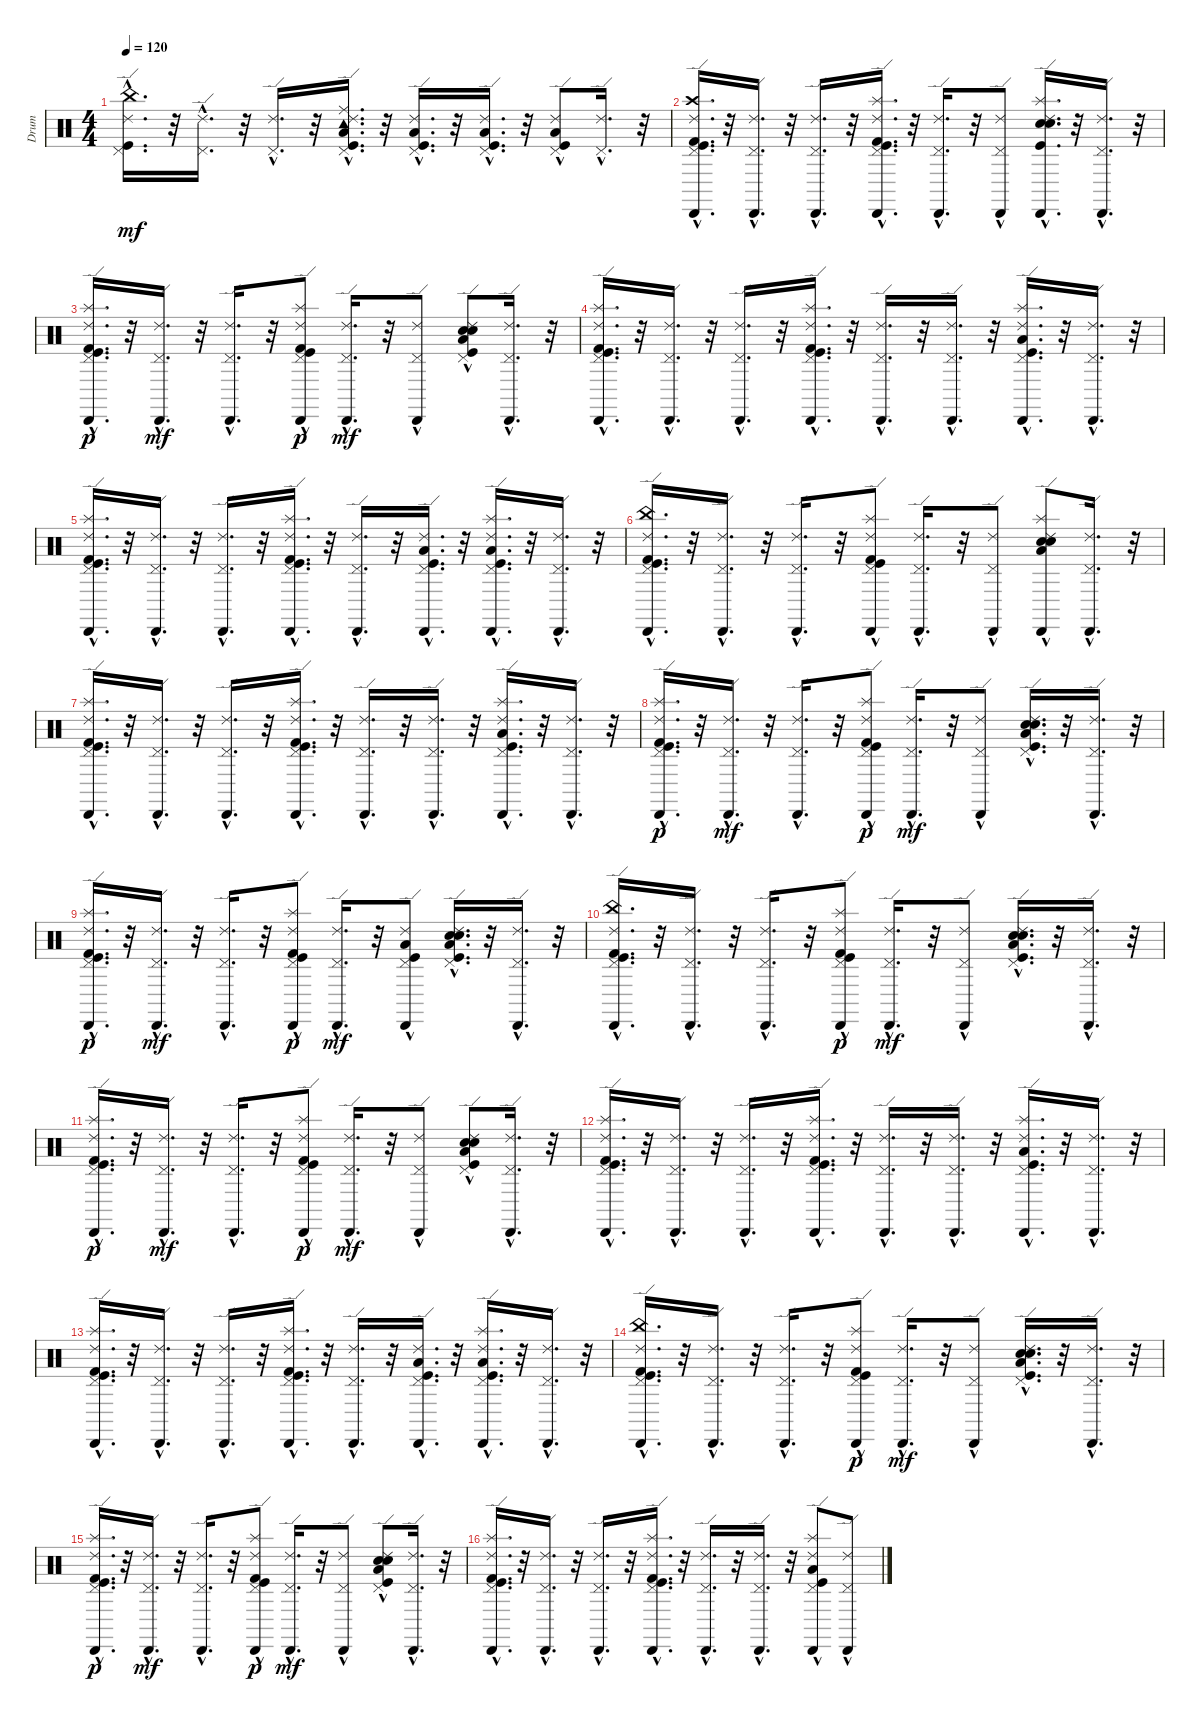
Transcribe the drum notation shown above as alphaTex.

\track ("Drum" "Drum") {instrument percussion}
\staff {score}
\articulation defaults
\ts (4 4)
\tempo 120
\clef neutral
\ks c
("China (hit)"{hac} "Pedal Hi-Hat (hit)"{hac} "Kick (hit)"{hac} "Ride (edge) 2"{hac}).16{d dy mf} r.32 ("Pedal Hi-Hat (hit)"{hac} "Ride (edge) 2"{hac}).16{d} r.32 ("Pedal Hi-Hat (hit)"{hac} "Ride (edge) 2"{hac}).16{d} r.32 ("Low Tom (hit)"{hac} "Pedal Hi-Hat (hit)"{hac} "Kick (hit)"{hac} "Ride (edge) 2"{hac} "Ride (middle)"{hac} "Tambourine (hit)"{hac}).16{d} r.32 ("Kick (hit)"{hac} "Low Tom (hit)"{hac} "Pedal Hi-Hat (hit)"{hac} "Ride (edge) 2"{hac}).16{d} r.32 ("Low Tom (hit)"{hac} "Kick (hit)"{hac} "Pedal Hi-Hat (hit)"{hac} "Ride (edge) 2"{hac}).16{d} r.32 ("Pedal Hi-Hat (hit)"{hac} "Kick (hit)"{hac} "Low Tom (hit)" "Ride (edge) 2"{hac}).8 ("Pedal Hi-Hat (hit)"{hac} "Ride (edge) 2"{hac}).16{d} r.32 |
("Crash high (hit)"{hac} "Cabasa (hit)"{hac} "Kick (hit)"{hac} "Pedal Hi-Hat (hit)"{hac} "Ride (edge) 2"{hac} "Kick (hit) 2"{hac}).16{d} r.32 ("Pedal Hi-Hat (hit)"{hac} "Cabasa (hit)"{hac} "Ride (edge) 2"{hac}).16{d} r.32 ("Ride (edge) 2"{hac} "Cabasa (hit)"{hac} "Pedal Hi-Hat (hit)"{hac}).16{d} r.32 ("Cabasa (hit)"{hac} "Kick (hit) 2"{hac} "Splash (hit)"{hac} "Ride (edge) 2"{hac} "Kick (hit)"{hac} "Pedal Hi-Hat (hit)"{hac}).16{d} r.32 ("Cabasa (hit)"{hac} "Pedal Hi-Hat (hit)"{hac} "Ride (edge) 2"{hac}).16{d} r.32 ("Cabasa (hit)"{hac} "Pedal Hi-Hat (hit)"{hac} "Ride (edge) 2"{hac}).8 ("Ride (edge) 2"{hac} "Splash (hit)"{hac} "Electric Snare (hit)"{hac} "Cabasa (hit)"{hac} "Snare (hit) 2"{hac} "Kick (hit)"{hac}).16{d} r.32 ("Ride (edge) 2"{hac} "Cabasa (hit)"{hac} "Pedal Hi-Hat (hit)"{hac}).16{d} r.32 |
("Ride (edge) 2"{hac} "Kick (hit)"{hac} "Pedal Hi-Hat (hit)"{hac} "Cabasa (hit)"{hac} "Kick (hit) 2"{hac} "Splash (hit)"{hac}).16{d dy p} r.32 ("Ride (edge) 2"{hac} "Pedal Hi-Hat (hit)"{hac} "Cabasa (hit)"{hac}).16{d dy mf} r.32 ("Ride (edge) 2"{hac} "Pedal Hi-Hat (hit)"{hac} "Cabasa (hit)"{hac}).16{d} r.32 ("Ride (edge) 2"{hac} "Kick (hit)"{hac} "Pedal Hi-Hat (hit)"{hac} "Cabasa (hit)"{hac} "Kick (hit) 2"{hac} "Splash (hit)"{hac}).8{dy p} ("Ride (edge) 2"{hac} "Pedal Hi-Hat (hit)"{hac} "Cabasa (hit)"{hac}).16{d dy mf} r.32 ("Ride (edge) 2"{hac} "Pedal Hi-Hat (hit)"{hac} "Cabasa (hit)"{hac}).8 ("Electric Snare (hit)" "Snare (hit) 2" "Ride (edge) 2"{hac} "Low Tom (hit)"{hac} "Kick (hit)"{hac} "Pedal Hi-Hat (hit)"{hac}).8 ("Ride (edge) 2"{hac} "Pedal Hi-Hat (hit)"{hac} "Cabasa (hit)"{hac}).16{d} r.32 |
("Splash (hit)"{hac} "Kick (hit) 2"{hac} "Cabasa (hit)"{hac} "Pedal Hi-Hat (hit)"{hac} "Kick (hit)"{hac} "Ride (edge) 2"{hac}).16{d} r.32 ("Cabasa (hit)"{hac} "Pedal Hi-Hat (hit)"{hac} "Ride (edge) 2"{hac}).16{d} r.32 ("Cabasa (hit)"{hac} "Pedal Hi-Hat (hit)"{hac} "Ride (edge) 2"{hac}).16{d} r.32 ("Splash (hit)"{hac} "Kick (hit) 2"{hac} "Cabasa (hit)"{hac} "Pedal Hi-Hat (hit)"{hac} "Kick (hit)"{hac} "Ride (edge) 2"{hac}).16{d} r.32 ("Cabasa (hit)"{hac} "Pedal Hi-Hat (hit)"{hac} "Ride (edge) 2"{hac}).16{d} r.32 ("Cabasa (hit)"{hac} "Pedal Hi-Hat (hit)"{hac} "Ride (edge) 2"{hac}).16{d} r.32 ("Splash (hit)"{hac} "Cabasa (hit)"{hac} "Pedal Hi-Hat (hit)"{hac} "Kick (hit)"{hac} "Low Tom (hit)"{hac} "Ride (edge) 2"{hac}).16{d} r.32 ("Cabasa (hit)"{hac} "Pedal Hi-Hat (hit)"{hac} "Ride (edge) 2"{hac}).16{d} r.32 |
("Splash (hit)"{hac} "Kick (hit) 2"{hac} "Cabasa (hit)"{hac} "Pedal Hi-Hat (hit)"{hac} "Kick (hit)"{hac} "Ride (edge) 2"{hac}).16{d} r.32 ("Cabasa (hit)"{hac} "Pedal Hi-Hat (hit)"{hac} "Ride (edge) 2"{hac}).16{d} r.32 ("Cabasa (hit)"{hac} "Pedal Hi-Hat (hit)"{hac} "Ride (edge) 2"{hac}).16{d} r.32 ("Splash (hit)"{hac} "Kick (hit) 2"{hac} "Cabasa (hit)"{hac} "Pedal Hi-Hat (hit)"{hac} "Kick (hit)"{hac} "Ride (edge) 2"{hac}).16{d} r.32 ("Cabasa (hit)"{hac} "Pedal Hi-Hat (hit)"{hac} "Ride (edge) 2"{hac}).16{d} r.32 ("Cabasa (hit)"{hac} "Pedal Hi-Hat (hit)"{hac} "Ride (edge) 2"{hac} "Kick (hit)"{hac} "Low Tom (hit)"{hac}).16{d} r.32 ("Splash (hit)"{hac} "Cabasa (hit)"{hac} "Pedal Hi-Hat (hit)"{hac} "Kick (hit)"{hac} "Low Tom (hit)"{hac} "Ride (edge) 2"{hac}).16{d} r.32 ("Cabasa (hit)"{hac} "Pedal Hi-Hat (hit)"{hac} "Ride (edge) 2"{hac}).16{d} r.32 |
("Kick (hit) 2"{hac} "Cabasa (hit)"{hac} "Ride (edge) 2"{hac} "Kick (hit)"{hac} "Pedal Hi-Hat (hit)"{hac} "China (hit)"{hac}).16{d} r.32 ("Cabasa (hit)"{hac} "Ride (edge) 2"{hac} "Pedal Hi-Hat (hit)"{hac}).16{d} r.32 ("Cabasa (hit)"{hac} "Ride (edge) 2"{hac} "Pedal Hi-Hat (hit)"{hac}).16{d} r.32 ("Splash (hit)"{hac} "Kick (hit) 2"{hac} "Cabasa (hit)"{hac} "Ride (edge) 2"{hac} "Kick (hit)"{hac} "Pedal Hi-Hat (hit)"{hac}).8 ("Cabasa (hit)"{hac} "Ride (edge) 2"{hac} "Pedal Hi-Hat (hit)"{hac}).16{d} r.32 ("Cabasa (hit)"{hac} "Ride (edge) 2"{hac} "Pedal Hi-Hat (hit)"{hac}).8 ("Splash (hit)"{hac} "Cabasa (hit)"{hac} "Electric Snare (hit)" "Snare (hit) 2" "Ride (edge) 2"{hac} "Low Tom (hit)"{hac}).8 ("Cabasa (hit)"{hac} "Ride (edge) 2"{hac} "Pedal Hi-Hat (hit)"{hac}).16{d} r.32 |
("Splash (hit)"{hac} "Kick (hit) 2"{hac} "Cabasa (hit)"{hac} "Pedal Hi-Hat (hit)"{hac} "Kick (hit)"{hac} "Ride (edge) 2"{hac}).16{d} r.32 ("Cabasa (hit)"{hac} "Pedal Hi-Hat (hit)"{hac} "Ride (edge) 2"{hac}).16{d} r.32 ("Cabasa (hit)"{hac} "Pedal Hi-Hat (hit)"{hac} "Ride (edge) 2"{hac}).16{d} r.32 ("Splash (hit)"{hac} "Kick (hit) 2"{hac} "Cabasa (hit)"{hac} "Pedal Hi-Hat (hit)"{hac} "Kick (hit)"{hac} "Ride (edge) 2"{hac}).16{d} r.32 ("Cabasa (hit)"{hac} "Pedal Hi-Hat (hit)"{hac} "Ride (edge) 2"{hac}).16{d} r.32 ("Cabasa (hit)"{hac} "Pedal Hi-Hat (hit)"{hac} "Ride (edge) 2"{hac}).16{d} r.32 ("Splash (hit)"{hac} "Cabasa (hit)"{hac} "Pedal Hi-Hat (hit)"{hac} "Kick (hit)"{hac} "Low Tom (hit)"{hac} "Ride (edge) 2"{hac}).16{d} r.32 ("Cabasa (hit)"{hac} "Pedal Hi-Hat (hit)"{hac} "Ride (edge) 2"{hac}).16{d} r.32 |
("Ride (edge) 2"{hac} "Kick (hit)"{hac} "Pedal Hi-Hat (hit)"{hac} "Cabasa (hit)"{hac} "Kick (hit) 2"{hac} "Splash (hit)"{hac}).16{d dy p} r.32 ("Ride (edge) 2"{hac} "Pedal Hi-Hat (hit)"{hac} "Cabasa (hit)"{hac}).16{d dy mf} r.32 ("Ride (edge) 2"{hac} "Pedal Hi-Hat (hit)"{hac} "Cabasa (hit)"{hac}).16{d} r.32 ("Ride (edge) 2"{hac} "Kick (hit)"{hac} "Pedal Hi-Hat (hit)"{hac} "Cabasa (hit)"{hac} "Kick (hit) 2"{hac} "Splash (hit)"{hac}).8{dy p} ("Ride (edge) 2"{hac} "Pedal Hi-Hat (hit)"{hac} "Cabasa (hit)"{hac}).16{d dy mf} r.32 ("Ride (edge) 2"{hac} "Pedal Hi-Hat (hit)"{hac} "Cabasa (hit)"{hac}).8 ("Electric Snare (hit)"{hac} "Snare (hit) 2"{hac} "Ride (edge) 2"{hac} "Low Tom (hit)"{hac} "Kick (hit)"{hac} "Pedal Hi-Hat (hit)"{hac}).16{d} r.32 ("Ride (edge) 2"{hac} "Pedal Hi-Hat (hit)"{hac} "Cabasa (hit)"{hac}).16{d} r.32 |
("Ride (edge) 2"{hac} "Kick (hit)"{hac} "Pedal Hi-Hat (hit)"{hac} "Cabasa (hit)"{hac} "Kick (hit) 2"{hac} "Splash (hit)"{hac}).16{d dy p} r.32 ("Ride (edge) 2"{hac} "Pedal Hi-Hat (hit)"{hac} "Cabasa (hit)"{hac}).16{d dy mf} r.32 ("Ride (edge) 2"{hac} "Pedal Hi-Hat (hit)"{hac} "Cabasa (hit)"{hac}).16{d} r.32 ("Ride (edge) 2"{hac} "Kick (hit)"{hac} "Pedal Hi-Hat (hit)"{hac} "Cabasa (hit)"{hac} "Kick (hit) 2"{hac} "Splash (hit)"{hac}).8{dy p} ("Ride (edge) 2"{hac} "Pedal Hi-Hat (hit)"{hac} "Cabasa (hit)"{hac}).16{d dy mf} r.32 ("Low Tom (hit)"{hac} "Kick (hit)"{hac} "Ride (edge) 2"{hac} "Pedal Hi-Hat (hit)"{hac} "Cabasa (hit)"{hac}).8 ("Electric Snare (hit)"{hac} "Snare (hit) 2"{hac} "Ride (edge) 2"{hac} "Low Tom (hit)"{hac} "Kick (hit)"{hac} "Pedal Hi-Hat (hit)"{hac}).16{d} r.32 ("Ride (edge) 2"{hac} "Pedal Hi-Hat (hit)"{hac} "Cabasa (hit)"{hac}).16{d} r.32 |
("China (hit)"{hac} "Pedal Hi-Hat (hit)"{hac} "Kick (hit)"{hac} "Ride (edge) 2"{hac} "Cabasa (hit)"{hac} "Kick (hit) 2"{hac}).16{d} r.32 ("Pedal Hi-Hat (hit)"{hac} "Ride (edge) 2"{hac} "Cabasa (hit)"{hac}).16{d} r.32 ("Pedal Hi-Hat (hit)"{hac} "Ride (edge) 2"{hac} "Cabasa (hit)"{hac}).16{d} r.32 ("Pedal Hi-Hat (hit)"{hac} "Kick (hit)"{hac} "Ride (edge) 2"{hac} "Cabasa (hit)"{hac} "Kick (hit) 2"{hac} "Splash (hit)"{hac}).8{dy p} ("Pedal Hi-Hat (hit)"{hac} "Ride (edge) 2"{hac} "Cabasa (hit)"{hac}).16{d dy mf} r.32 ("Pedal Hi-Hat (hit)"{hac} "Ride (edge) 2"{hac} "Cabasa (hit)"{hac}).8 ("Pedal Hi-Hat (hit)"{hac} "Kick (hit)"{hac} "Low Tom (hit)"{hac} "Ride (edge) 2"{hac} "Snare (hit) 2"{hac} "Electric Snare (hit)"{hac}).16{d} r.32 ("Pedal Hi-Hat (hit)"{hac} "Ride (edge) 2"{hac} "Cabasa (hit)"{hac}).16{d} r.32 |
("Ride (edge) 2"{hac} "Kick (hit)"{hac} "Pedal Hi-Hat (hit)"{hac} "Cabasa (hit)"{hac} "Kick (hit) 2"{hac} "Splash (hit)"{hac}).16{d dy p} r.32 ("Ride (edge) 2"{hac} "Pedal Hi-Hat (hit)"{hac} "Cabasa (hit)"{hac}).16{d dy mf} r.32 ("Ride (edge) 2"{hac} "Pedal Hi-Hat (hit)"{hac} "Cabasa (hit)"{hac}).16{d} r.32 ("Ride (edge) 2"{hac} "Kick (hit)"{hac} "Pedal Hi-Hat (hit)"{hac} "Cabasa (hit)"{hac} "Kick (hit) 2"{hac} "Splash (hit)"{hac}).8{dy p} ("Ride (edge) 2"{hac} "Pedal Hi-Hat (hit)"{hac} "Cabasa (hit)"{hac}).16{d dy mf} r.32 ("Ride (edge) 2"{hac} "Pedal Hi-Hat (hit)"{hac} "Cabasa (hit)"{hac}).8 ("Electric Snare (hit)" "Snare (hit) 2" "Ride (edge) 2"{hac} "Low Tom (hit)"{hac} "Kick (hit)"{hac} "Pedal Hi-Hat (hit)"{hac}).8 ("Ride (edge) 2"{hac} "Pedal Hi-Hat (hit)"{hac} "Cabasa (hit)"{hac}).16{d} r.32 |
("Splash (hit)"{hac} "Kick (hit) 2"{hac} "Cabasa (hit)"{hac} "Pedal Hi-Hat (hit)"{hac} "Kick (hit)"{hac} "Ride (edge) 2"{hac}).16{d} r.32 ("Cabasa (hit)"{hac} "Pedal Hi-Hat (hit)"{hac} "Ride (edge) 2"{hac}).16{d} r.32 ("Cabasa (hit)"{hac} "Pedal Hi-Hat (hit)"{hac} "Ride (edge) 2"{hac}).16{d} r.32 ("Splash (hit)"{hac} "Kick (hit) 2"{hac} "Cabasa (hit)"{hac} "Pedal Hi-Hat (hit)"{hac} "Kick (hit)"{hac} "Ride (edge) 2"{hac}).16{d} r.32 ("Cabasa (hit)"{hac} "Pedal Hi-Hat (hit)"{hac} "Ride (edge) 2"{hac}).16{d} r.32 ("Cabasa (hit)"{hac} "Pedal Hi-Hat (hit)"{hac} "Ride (edge) 2"{hac}).16{d} r.32 ("Splash (hit)"{hac} "Cabasa (hit)"{hac} "Pedal Hi-Hat (hit)"{hac} "Kick (hit)"{hac} "Low Tom (hit)"{hac} "Ride (edge) 2"{hac}).16{d} r.32 ("Cabasa (hit)"{hac} "Pedal Hi-Hat (hit)"{hac} "Ride (edge) 2"{hac}).16{d} r.32 |
("Splash (hit)"{hac} "Kick (hit) 2"{hac} "Cabasa (hit)"{hac} "Pedal Hi-Hat (hit)"{hac} "Kick (hit)"{hac} "Ride (edge) 2"{hac}).16{d} r.32 ("Cabasa (hit)"{hac} "Pedal Hi-Hat (hit)"{hac} "Ride (edge) 2"{hac}).16{d} r.32 ("Cabasa (hit)"{hac} "Pedal Hi-Hat (hit)"{hac} "Ride (edge) 2"{hac}).16{d} r.32 ("Splash (hit)"{hac} "Kick (hit) 2"{hac} "Cabasa (hit)"{hac} "Pedal Hi-Hat (hit)"{hac} "Kick (hit)"{hac} "Ride (edge) 2"{hac}).16{d} r.32 ("Cabasa (hit)"{hac} "Pedal Hi-Hat (hit)"{hac} "Ride (edge) 2"{hac}).16{d} r.32 ("Cabasa (hit)"{hac} "Pedal Hi-Hat (hit)"{hac} "Ride (edge) 2"{hac} "Kick (hit)"{hac} "Low Tom (hit)"{hac}).16{d} r.32 ("Splash (hit)"{hac} "Cabasa (hit)"{hac} "Pedal Hi-Hat (hit)"{hac} "Kick (hit)"{hac} "Low Tom (hit)"{hac} "Ride (edge) 2"{hac}).16{d} r.32 ("Cabasa (hit)"{hac} "Pedal Hi-Hat (hit)"{hac} "Ride (edge) 2"{hac}).16{d} r.32 |
("China (hit)"{hac} "Pedal Hi-Hat (hit)"{hac} "Kick (hit)"{hac} "Ride (edge) 2"{hac} "Cabasa (hit)"{hac} "Kick (hit) 2"{hac}).16{d} r.32 ("Pedal Hi-Hat (hit)"{hac} "Ride (edge) 2"{hac} "Cabasa (hit)"{hac}).16{d} r.32 ("Pedal Hi-Hat (hit)"{hac} "Ride (edge) 2"{hac} "Cabasa (hit)"{hac}).16{d} r.32 ("Pedal Hi-Hat (hit)"{hac} "Kick (hit)"{hac} "Ride (edge) 2"{hac} "Cabasa (hit)"{hac} "Kick (hit) 2"{hac} "Splash (hit)"{hac}).8{dy p} ("Pedal Hi-Hat (hit)"{hac} "Ride (edge) 2"{hac} "Cabasa (hit)"{hac}).16{d dy mf} r.32 ("Pedal Hi-Hat (hit)"{hac} "Ride (edge) 2"{hac} "Cabasa (hit)"{hac}).8 ("Pedal Hi-Hat (hit)"{hac} "Kick (hit)"{hac} "Low Tom (hit)"{hac} "Ride (edge) 2"{hac} "Snare (hit) 2"{hac} "Electric Snare (hit)"{hac}).16{d} r.32 ("Pedal Hi-Hat (hit)"{hac} "Ride (edge) 2"{hac} "Cabasa (hit)"{hac}).16{d} r.32 |
("Ride (edge) 2"{hac} "Kick (hit)"{hac} "Pedal Hi-Hat (hit)"{hac} "Cabasa (hit)"{hac} "Kick (hit) 2"{hac} "Splash (hit)"{hac}).16{d dy p} r.32 ("Ride (edge) 2"{hac} "Pedal Hi-Hat (hit)"{hac} "Cabasa (hit)"{hac}).16{d dy mf} r.32 ("Ride (edge) 2"{hac} "Pedal Hi-Hat (hit)"{hac} "Cabasa (hit)"{hac}).16{d} r.32 ("Ride (edge) 2"{hac} "Kick (hit)"{hac} "Pedal Hi-Hat (hit)"{hac} "Cabasa (hit)"{hac} "Kick (hit) 2"{hac} "Splash (hit)"{hac}).8{dy p} ("Ride (edge) 2"{hac} "Pedal Hi-Hat (hit)"{hac} "Cabasa (hit)"{hac}).16{d dy mf} r.32 ("Ride (edge) 2"{hac} "Pedal Hi-Hat (hit)"{hac} "Cabasa (hit)"{hac}).8 ("Electric Snare (hit)" "Snare (hit) 2" "Ride (edge) 2"{hac} "Low Tom (hit)"{hac} "Kick (hit)"{hac} "Pedal Hi-Hat (hit)"{hac}).8 ("Ride (edge) 2"{hac} "Pedal Hi-Hat (hit)"{hac} "Cabasa (hit)"{hac}).16{d} r.32 |
("Splash (hit)"{hac} "Kick (hit) 2"{hac} "Cabasa (hit)"{hac} "Pedal Hi-Hat (hit)"{hac} "Kick (hit)"{hac} "Ride (edge) 2"{hac}).16{d} r.32 ("Cabasa (hit)"{hac} "Pedal Hi-Hat (hit)"{hac} "Ride (edge) 2"{hac}).16{d} r.32 ("Cabasa (hit)"{hac} "Pedal Hi-Hat (hit)"{hac} "Ride (edge) 2"{hac}).16{d} r.32 ("Splash (hit)"{hac} "Kick (hit) 2"{hac} "Cabasa (hit)"{hac} "Pedal Hi-Hat (hit)"{hac} "Kick (hit)"{hac} "Ride (edge) 2"{hac}).16{d} r.32 ("Cabasa (hit)"{hac} "Pedal Hi-Hat (hit)"{hac} "Ride (edge) 2"{hac}).16{d} r.32 ("Cabasa (hit)"{hac} "Pedal Hi-Hat (hit)"{hac} "Ride (edge) 2"{hac}).16{d} r.32 ("Splash (hit)"{hac} "Cabasa (hit)"{hac} "Pedal Hi-Hat (hit)"{hac} "Kick (hit)" "Low Tom (hit)"{hac} "Ride (edge) 2"{hac}).8 ("Cabasa (hit)"{hac} "Pedal Hi-Hat (hit)"{hac} "Ride (edge) 2"{hac}).8
